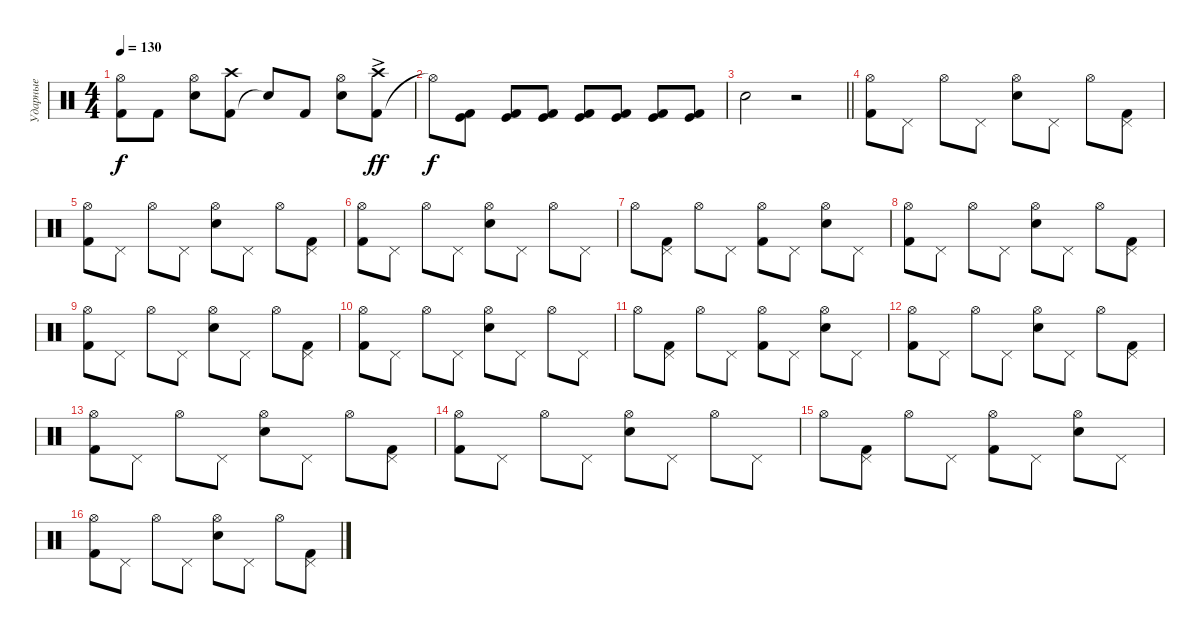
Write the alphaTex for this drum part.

\track ("Ударные" "Ударные") {instrument percussion}
\staff {score}
\articulation defaults
\ts (4 4)
\tempo 130
\clef neutral
\ks c
("Kick (hit) 2" "Hi-Hat (open)").8{dy f} "Kick (hit) 2".8 ("Snare (hit) 2" "Hi-Hat (open)").8 ("Kick (hit) 2" "Crash high (hit)").8 "Snare (hit)"{t}.8 "Kick (hit) 2".8 ("Snare (hit) 2" "Hi-Hat (open)").8 ("Kick (hit) 2" "Crash high (hit)"{ac}).8{dy ff} |
"Hi-Hat (open)"{t}.8{dy f} ("Kick (hit) 2" "Kick (hit)").8 ("Kick (hit) 2" "Kick (hit)").8 ("Kick (hit) 2" "Kick (hit)").8 ("Kick (hit) 2" "Kick (hit)").8 ("Kick (hit) 2" "Kick (hit)").8 ("Kick (hit) 2" "Kick (hit)").8 ("Kick (hit) 2" "Kick (hit)").8 |
\barLineRight lightlight "Snare (hit) 2".2
r.2 |
("Kick (hit) 2" "Hi-Hat (open)").8 "Pedal Hi-Hat (hit)".8 "Hi-Hat (open)".8 "Pedal Hi-Hat (hit)".8 ("Snare (hit) 2" "Hi-Hat (open)").8 "Pedal Hi-Hat (hit)".8 "Hi-Hat (open)".8 ("Kick (hit) 2" "Pedal Hi-Hat (hit)").8 |
("Kick (hit) 2" "Hi-Hat (open)").8 "Pedal Hi-Hat (hit)".8 "Hi-Hat (open)".8 "Pedal Hi-Hat (hit)".8 ("Snare (hit) 2" "Hi-Hat (open)").8 "Pedal Hi-Hat (hit)".8 "Hi-Hat (open)".8 ("Kick (hit) 2" "Pedal Hi-Hat (hit)").8 |
("Kick (hit) 2" "Hi-Hat (open)").8 "Pedal Hi-Hat (hit)".8 "Hi-Hat (open)".8 "Pedal Hi-Hat (hit)".8 ("Snare (hit) 2" "Hi-Hat (open)").8 "Pedal Hi-Hat (hit)".8 "Hi-Hat (open)".8 "Pedal Hi-Hat (hit)".8 |
"Hi-Hat (open)".8 ("Kick (hit) 2" "Pedal Hi-Hat (hit)").8 "Hi-Hat (open)".8 "Pedal Hi-Hat (hit)".8 ("Kick (hit) 2" "Hi-Hat (open)").8 "Pedal Hi-Hat (hit)".8 ("Snare (hit) 2" "Hi-Hat (open)").8 "Pedal Hi-Hat (hit)".8 |
("Kick (hit) 2" "Hi-Hat (open)").8 "Pedal Hi-Hat (hit)".8 "Hi-Hat (open)".8 "Pedal Hi-Hat (hit)".8 ("Snare (hit) 2" "Hi-Hat (open)").8 "Pedal Hi-Hat (hit)".8 "Hi-Hat (open)".8 ("Kick (hit) 2" "Pedal Hi-Hat (hit)").8 |
("Kick (hit) 2" "Hi-Hat (open)").8 "Pedal Hi-Hat (hit)".8 "Hi-Hat (open)".8 "Pedal Hi-Hat (hit)".8 ("Snare (hit) 2" "Hi-Hat (open)").8 "Pedal Hi-Hat (hit)".8 "Hi-Hat (open)".8 ("Kick (hit) 2" "Pedal Hi-Hat (hit)").8 |
("Kick (hit) 2" "Hi-Hat (open)").8 "Pedal Hi-Hat (hit)".8 "Hi-Hat (open)".8 "Pedal Hi-Hat (hit)".8 ("Snare (hit) 2" "Hi-Hat (open)").8 "Pedal Hi-Hat (hit)".8 "Hi-Hat (open)".8 "Pedal Hi-Hat (hit)".8 |
"Hi-Hat (open)".8 ("Kick (hit) 2" "Pedal Hi-Hat (hit)").8 "Hi-Hat (open)".8 "Pedal Hi-Hat (hit)".8 ("Kick (hit) 2" "Hi-Hat (open)").8 "Pedal Hi-Hat (hit)".8 ("Snare (hit) 2" "Hi-Hat (open)").8 "Pedal Hi-Hat (hit)".8 |
("Kick (hit) 2" "Hi-Hat (open)").8 "Pedal Hi-Hat (hit)".8 "Hi-Hat (open)".8 "Pedal Hi-Hat (hit)".8 ("Snare (hit) 2" "Hi-Hat (open)").8 "Pedal Hi-Hat (hit)".8 "Hi-Hat (open)".8 ("Kick (hit) 2" "Pedal Hi-Hat (hit)").8 |
("Kick (hit) 2" "Hi-Hat (open)").8 "Pedal Hi-Hat (hit)".8 "Hi-Hat (open)".8 "Pedal Hi-Hat (hit)".8 ("Snare (hit) 2" "Hi-Hat (open)").8 "Pedal Hi-Hat (hit)".8 "Hi-Hat (open)".8 ("Kick (hit) 2" "Pedal Hi-Hat (hit)").8 |
("Kick (hit) 2" "Hi-Hat (open)").8 "Pedal Hi-Hat (hit)".8 "Hi-Hat (open)".8 "Pedal Hi-Hat (hit)".8 ("Snare (hit) 2" "Hi-Hat (open)").8 "Pedal Hi-Hat (hit)".8 "Hi-Hat (open)".8 "Pedal Hi-Hat (hit)".8 |
"Hi-Hat (open)".8 ("Kick (hit) 2" "Pedal Hi-Hat (hit)").8 "Hi-Hat (open)".8 "Pedal Hi-Hat (hit)".8 ("Kick (hit) 2" "Hi-Hat (open)").8 "Pedal Hi-Hat (hit)".8 ("Snare (hit) 2" "Hi-Hat (open)").8 "Pedal Hi-Hat (hit)".8 |
("Kick (hit) 2" "Hi-Hat (open)").8 "Pedal Hi-Hat (hit)".8 "Hi-Hat (open)".8 "Pedal Hi-Hat (hit)".8 ("Snare (hit) 2" "Hi-Hat (open)").8 "Pedal Hi-Hat (hit)".8 "Hi-Hat (open)".8 ("Kick (hit) 2" "Pedal Hi-Hat (hit)").8
